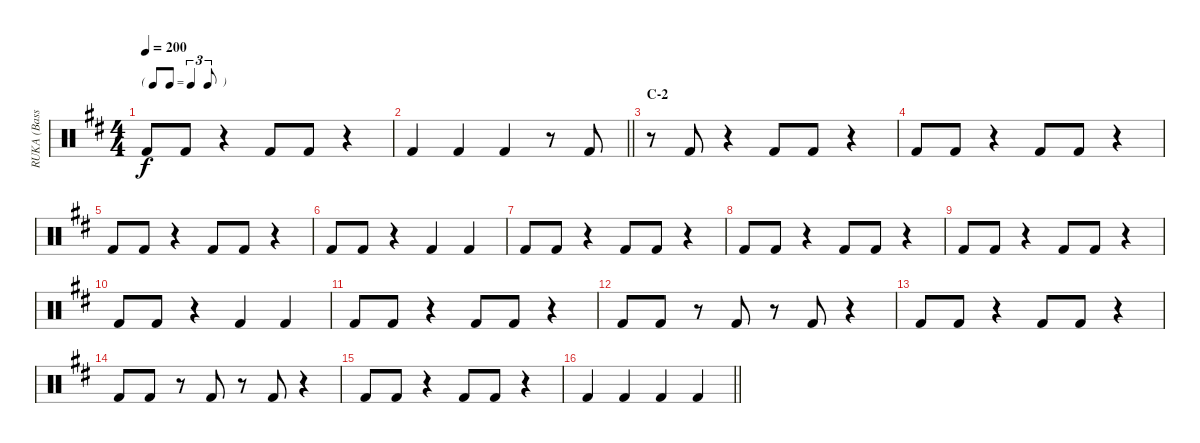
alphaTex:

\track ("RUKA (Bass)" "RUKA (Bass") {instrument percussion}
\staff {score}
\articulation defaults
\ts (4 4)
\tf triplet8th
\tempo 200
\clef neutral
\ks d "Kick (hit) 2".8{dy f} "Kick (hit) 2".8
r.4 "Kick (hit) 2".8 "Kick (hit) 2".8 r.4 |
\barLineRight lightlight "Kick (hit) 2".4 "Kick (hit) 2".4 "Kick (hit) 2".4
r.8 "Kick (hit) 2".8 |
\section ("" "C-2")
r.8 "Kick (hit) 2".8 r.4 "Kick (hit) 2".8 "Kick (hit) 2".8 r.4 |
"Kick (hit) 2".8 "Kick (hit) 2".8 r.4 "Kick (hit) 2".8 "Kick (hit) 2".8 r.4 |
"Kick (hit) 2".8 "Kick (hit) 2".8 r.4 "Kick (hit) 2".8 "Kick (hit) 2".8 r.4 |
"Kick (hit) 2".8 "Kick (hit) 2".8 r.4 "Kick (hit) 2".4 "Kick (hit) 2".4 |
"Kick (hit) 2".8 "Kick (hit) 2".8 r.4 "Kick (hit) 2".8 "Kick (hit) 2".8 r.4 |
"Kick (hit) 2".8 "Kick (hit) 2".8 r.4 "Kick (hit) 2".8 "Kick (hit) 2".8 r.4 |
"Kick (hit) 2".8 "Kick (hit) 2".8 r.4 "Kick (hit) 2".8 "Kick (hit) 2".8 r.4 |
"Kick (hit) 2".8 "Kick (hit) 2".8 r.4 "Kick (hit) 2".4 "Kick (hit) 2".4 |
"Kick (hit) 2".8 "Kick (hit) 2".8 r.4 "Kick (hit) 2".8 "Kick (hit) 2".8 r.4 |
"Kick (hit) 2".8 "Kick (hit) 2".8 r.8 "Kick (hit) 2".8 r.8 "Kick (hit) 2".8 r.4 |
"Kick (hit) 2".8 "Kick (hit) 2".8 r.4 "Kick (hit) 2".8 "Kick (hit) 2".8 r.4 |
"Kick (hit) 2".8 "Kick (hit) 2".8 r.8 "Kick (hit) 2".8 r.8 "Kick (hit) 2".8 r.4 |
"Kick (hit) 2".8 "Kick (hit) 2".8 r.4 "Kick (hit) 2".8 "Kick (hit) 2".8 r.4 |
\barLineRight lightlight "Kick (hit) 2".4 "Kick (hit) 2".4 "Kick (hit) 2".4 "Kick (hit) 2".4
